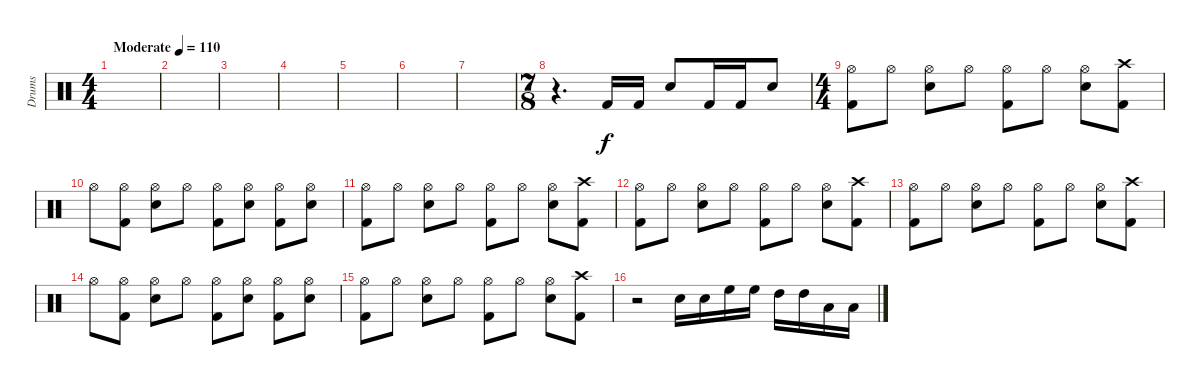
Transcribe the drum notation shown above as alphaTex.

\track ("Drums" "Drums") {instrument percussion}
\staff {score}
\articulation defaults
\ts (4 4)
\tempo (110 "Moderate")
\clef neutral
\ks c
|
|
|
|
|
|
|
\ts (7 8)
r.4{d} "Kick (hit) 2".16 "Kick (hit) 2".16 "Electric Snare (hit)".8 "Kick (hit) 2".16 "Kick (hit) 2".16 "Electric Snare (hit)".8 |
\ts (4 4)
("Hi-Hat (open)" "Kick (hit) 2").8 "Hi-Hat (open)".8 ("Hi-Hat (open)" "Electric Snare (hit)").8 "Hi-Hat (open)".8 ("Hi-Hat (open)" "Kick (hit) 2").8 "Hi-Hat (open)".8 ("Hi-Hat (open)" "Electric Snare (hit)").8 ("Crash high (hit)" "Kick (hit) 2").8 |
"Hi-Hat (open)".8 ("Hi-Hat (open)" "Kick (hit) 2").8 ("Hi-Hat (open)" "Electric Snare (hit)").8 "Hi-Hat (open)".8 ("Hi-Hat (open)" "Kick (hit) 2").8 ("Hi-Hat (open)" "Electric Snare (hit)").8 ("Hi-Hat (open)" "Kick (hit) 2").8 ("Hi-Hat (open)" "Electric Snare (hit)").8 |
("Hi-Hat (open)" "Kick (hit) 2").8 "Hi-Hat (open)".8 ("Hi-Hat (open)" "Electric Snare (hit)").8 "Hi-Hat (open)".8 ("Hi-Hat (open)" "Kick (hit) 2").8 "Hi-Hat (open)".8 ("Hi-Hat (open)" "Electric Snare (hit)").8 ("Crash high (hit)" "Kick (hit) 2").8 |
("Hi-Hat (open)" "Kick (hit) 2").8 "Hi-Hat (open)".8 ("Hi-Hat (open)" "Electric Snare (hit)").8 "Hi-Hat (open)".8 ("Hi-Hat (open)" "Kick (hit) 2").8 "Hi-Hat (open)".8 ("Hi-Hat (open)" "Electric Snare (hit)").8 ("Crash high (hit)" "Kick (hit) 2").8 |
("Hi-Hat (open)" "Kick (hit) 2").8 "Hi-Hat (open)".8 ("Hi-Hat (open)" "Electric Snare (hit)").8 "Hi-Hat (open)".8 ("Hi-Hat (open)" "Kick (hit) 2").8 "Hi-Hat (open)".8 ("Hi-Hat (open)" "Electric Snare (hit)").8 ("Crash high (hit)" "Kick (hit) 2").8 |
"Hi-Hat (open)".8 ("Hi-Hat (open)" "Kick (hit) 2").8 ("Hi-Hat (open)" "Electric Snare (hit)").8 "Hi-Hat (open)".8 ("Hi-Hat (open)" "Kick (hit) 2").8 ("Hi-Hat (open)" "Electric Snare (hit)").8 ("Hi-Hat (open)" "Kick (hit) 2").8 ("Hi-Hat (open)" "Electric Snare (hit)").8 |
("Hi-Hat (open)" "Kick (hit) 2").8 "Hi-Hat (open)".8 ("Hi-Hat (open)" "Electric Snare (hit)").8 "Hi-Hat (open)".8 ("Hi-Hat (open)" "Kick (hit) 2").8 "Hi-Hat (open)".8 ("Hi-Hat (open)" "Electric Snare (hit)").8 ("Crash high (hit)" "Kick (hit) 2").8 |
r.2 "Electric Snare (hit)".16 "Electric Snare (hit)".16 "High Floor Tom (hit)".16 "High Floor Tom (hit)".16 "High Tom (hit)".16 "High Tom (hit)".16 "Low Tom (hit)".16 "Low Tom (hit)".16
